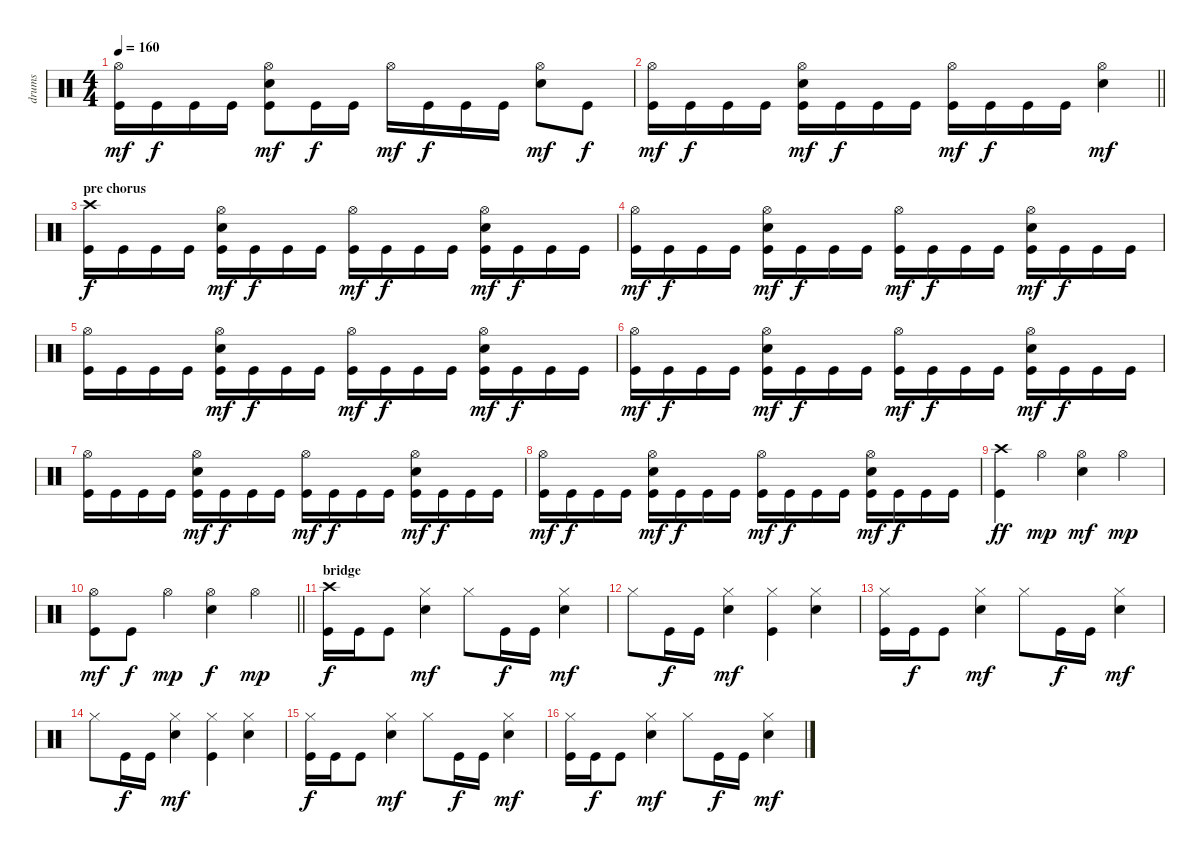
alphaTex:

\track ("drums" "drums") {instrument percussion}
\staff {score}
\articulation defaults
\ts (4 4)
\tempo 160
\clef neutral
\ks c
("Hi-Hat (open)" "Kick (hit)").16{dy mf} "Kick (hit)".16{dy f} "Kick (hit)".16 "Kick (hit)".16 ("Hi-Hat (open)" "Electric Snare (hit)" "Kick (hit)").8{dy mf} "Kick (hit)".16{dy f} "Kick (hit)".16 "Hi-Hat (open)".16{dy mf} "Kick (hit)".16{dy f} "Kick (hit)".16 "Kick (hit)".16 ("Hi-Hat (open)" "Electric Snare (hit)").8{dy mf} "Kick (hit)".8{dy f} |
\barLineRight lightlight
("Hi-Hat (open)" "Kick (hit)").16{dy mf} "Kick (hit)".16{dy f} "Kick (hit)".16 "Kick (hit)".16 ("Hi-Hat (open)" "Electric Snare (hit)" "Kick (hit)").16{dy mf} "Kick (hit)".16{dy f} "Kick (hit)".16 "Kick (hit)".16 ("Hi-Hat (open)" "Kick (hit)").16{dy mf} "Kick (hit)".16{dy f} "Kick (hit)".16 "Kick (hit)".16 ("Hi-Hat (open)" "Electric Snare (hit)").4{dy mf} |
\section ("" "pre chorus")
("Crash high (hit)" "Kick (hit)").16{dy f} "Kick (hit)".16 "Kick (hit)".16 "Kick (hit)".16 ("Hi-Hat (open)" "Electric Snare (hit)" "Kick (hit)").16{dy mf} "Kick (hit)".16{dy f} "Kick (hit)".16 "Kick (hit)".16 ("Hi-Hat (open)" "Kick (hit)").16{dy mf} "Kick (hit)".16{dy f} "Kick (hit)".16 "Kick (hit)".16 ("Hi-Hat (open)" "Electric Snare (hit)" "Kick (hit)").16{dy mf} "Kick (hit)".16{dy f} "Kick (hit)".16 "Kick (hit)".16 |
("Hi-Hat (open)" "Kick (hit)").16{dy mf} "Kick (hit)".16{dy f} "Kick (hit)".16 "Kick (hit)".16 ("Hi-Hat (open)" "Electric Snare (hit)" "Kick (hit)").16{dy mf} "Kick (hit)".16{dy f} "Kick (hit)".16 "Kick (hit)".16 ("Hi-Hat (open)" "Kick (hit)").16{dy mf} "Kick (hit)".16{dy f} "Kick (hit)".16 "Kick (hit)".16 ("Hi-Hat (open)" "Electric Snare (hit)" "Kick (hit)").16{dy mf} "Kick (hit)".16{dy f} "Kick (hit)".16 "Kick (hit)".16 |
("Hi-Hat (open)" "Kick (hit)").16 "Kick (hit)".16 "Kick (hit)".16 "Kick (hit)".16 ("Hi-Hat (open)" "Electric Snare (hit)" "Kick (hit)").16{dy mf} "Kick (hit)".16{dy f} "Kick (hit)".16 "Kick (hit)".16 ("Hi-Hat (open)" "Kick (hit)").16{dy mf} "Kick (hit)".16{dy f} "Kick (hit)".16 "Kick (hit)".16 ("Hi-Hat (open)" "Electric Snare (hit)" "Kick (hit)").16{dy mf} "Kick (hit)".16{dy f} "Kick (hit)".16 "Kick (hit)".16 |
("Hi-Hat (open)" "Kick (hit)").16{dy mf} "Kick (hit)".16{dy f} "Kick (hit)".16 "Kick (hit)".16 ("Hi-Hat (open)" "Electric Snare (hit)" "Kick (hit)").16{dy mf} "Kick (hit)".16{dy f} "Kick (hit)".16 "Kick (hit)".16 ("Hi-Hat (open)" "Kick (hit)").16{dy mf} "Kick (hit)".16{dy f} "Kick (hit)".16 "Kick (hit)".16 ("Hi-Hat (open)" "Electric Snare (hit)" "Kick (hit)").16{dy mf} "Kick (hit)".16{dy f} "Kick (hit)".16 "Kick (hit)".16 |
("Hi-Hat (open)" "Kick (hit)").16 "Kick (hit)".16 "Kick (hit)".16 "Kick (hit)".16 ("Hi-Hat (open)" "Electric Snare (hit)" "Kick (hit)").16{dy mf} "Kick (hit)".16{dy f} "Kick (hit)".16 "Kick (hit)".16 ("Hi-Hat (open)" "Kick (hit)").16{dy mf} "Kick (hit)".16{dy f} "Kick (hit)".16 "Kick (hit)".16 ("Hi-Hat (open)" "Electric Snare (hit)" "Kick (hit)").16{dy mf} "Kick (hit)".16{dy f} "Kick (hit)".16 "Kick (hit)".16 |
("Hi-Hat (open)" "Kick (hit)").16{dy mf} "Kick (hit)".16{dy f} "Kick (hit)".16 "Kick (hit)".16 ("Hi-Hat (open)" "Electric Snare (hit)" "Kick (hit)").16{dy mf} "Kick (hit)".16{dy f} "Kick (hit)".16 "Kick (hit)".16 ("Hi-Hat (open)" "Kick (hit)").16{dy mf} "Kick (hit)".16{dy f} "Kick (hit)".16 "Kick (hit)".16 ("Hi-Hat (open)" "Electric Snare (hit)" "Kick (hit)").16{dy mf} "Kick (hit)".16{dy f} "Kick (hit)".16 "Kick (hit)".16 |
("Crash high (hit)" "Kick (hit)").4{dy ff} "Hi-Hat (open)".4{dy mp} ("Hi-Hat (open)" "Electric Snare (hit)").4{dy mf} "Hi-Hat (open)".4{dy mp} |
\barLineRight lightlight
("Hi-Hat (open)" "Kick (hit)").8{dy mf} "Kick (hit)".8{dy f} "Hi-Hat (open)".4{dy mp} ("Hi-Hat (open)" "Electric Snare (hit)").4{dy f} "Hi-Hat (open)".4{dy mp} |
\section ("" "bridge")
("Crash high (hit)" "Kick (hit)").16{dy f} "Kick (hit)".16 "Kick (hit)".8 ("Hi-Hat (closed)" "Electric Snare (hit)").4{dy mf} "Hi-Hat (closed)".8 "Kick (hit)".16{dy f} "Kick (hit)".16 ("Hi-Hat (closed)" "Electric Snare (hit)").4{dy mf} |
"Hi-Hat (closed)".8 "Kick (hit)".16{dy f} "Kick (hit)".16 ("Hi-Hat (closed)" "Electric Snare (hit)").4{dy mf} ("Hi-Hat (closed)" "Kick (hit)").4 ("Hi-Hat (closed)" "Electric Snare (hit)").4 |
("Hi-Hat (closed)" "Kick (hit)").16 "Kick (hit)".16{dy f} "Kick (hit)".8 ("Hi-Hat (closed)" "Electric Snare (hit)").4{dy mf} "Hi-Hat (closed)".8 "Kick (hit)".16{dy f} "Kick (hit)".16 ("Hi-Hat (closed)" "Electric Snare (hit)").4{dy mf} |
"Hi-Hat (closed)".8 "Kick (hit)".16{dy f} "Kick (hit)".16 ("Hi-Hat (closed)" "Electric Snare (hit)").4{dy mf} ("Hi-Hat (closed)" "Kick (hit)").4 ("Hi-Hat (closed)" "Electric Snare (hit)").4 |
("Hi-Hat (closed)" "Kick (hit)").16{dy f} "Kick (hit)".16 "Kick (hit)".8 ("Hi-Hat (closed)" "Electric Snare (hit)").4{dy mf} "Hi-Hat (closed)".8 "Kick (hit)".16{dy f} "Kick (hit)".16 ("Hi-Hat (closed)" "Electric Snare (hit)").4{dy mf} |
("Hi-Hat (closed)" "Kick (hit)").16 "Kick (hit)".16{dy f} "Kick (hit)".8 ("Hi-Hat (closed)" "Electric Snare (hit)").4{dy mf} "Hi-Hat (closed)".8 "Kick (hit)".16{dy f} "Kick (hit)".16 ("Hi-Hat (closed)" "Electric Snare (hit)").4{dy mf}
